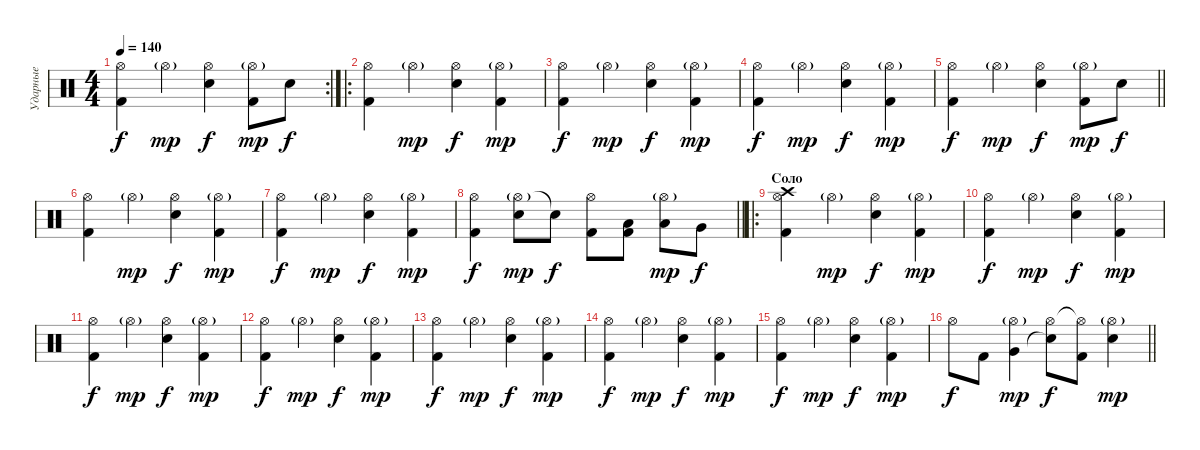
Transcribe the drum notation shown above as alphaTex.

\track ("Ударные" "Ударные") {instrument percussion}
\staff {score}
\articulation defaults
\rc 2
\ts (4 4)
\tempo 140
\clef neutral
\ks c
("Hi-Hat (open)" "Kick (hit) 2").4{dy f} "Hi-Hat (open)"{g}.4{dy mp} ("Hi-Hat (open)" "Electric Snare (hit)").4{dy f} ("Hi-Hat (open)"{g} "Kick (hit) 2").8{dy mp} "Electric Snare (hit)".8{dy f} |
\ro
("Hi-Hat (open)" "Kick (hit) 2").4 "Hi-Hat (open)"{g}.4{dy mp} ("Hi-Hat (open)" "Electric Snare (hit)").4{dy f} ("Hi-Hat (open)"{g} "Kick (hit) 2").4{dy mp} |
("Hi-Hat (open)" "Kick (hit) 2").4{dy f} "Hi-Hat (open)"{g}.4{dy mp} ("Hi-Hat (open)" "Electric Snare (hit)").4{dy f} ("Hi-Hat (open)"{g} "Kick (hit) 2").4{dy mp} |
("Hi-Hat (open)" "Kick (hit) 2").4{dy f} "Hi-Hat (open)"{g}.4{dy mp} ("Hi-Hat (open)" "Electric Snare (hit)").4{dy f} ("Hi-Hat (open)"{g} "Kick (hit) 2").4{dy mp} |
\barLineRight lightlight
("Hi-Hat (open)" "Kick (hit) 2").4{dy f} "Hi-Hat (open)"{g}.4{dy mp} ("Hi-Hat (open)" "Electric Snare (hit)").4{dy f} ("Hi-Hat (open)"{g} "Kick (hit) 2").8{dy mp} "Electric Snare (hit)".8{dy f} |
("Hi-Hat (open)" "Kick (hit) 2").4 "Hi-Hat (open)"{g}.4{dy mp} ("Hi-Hat (open)" "Electric Snare (hit)").4{dy f} ("Hi-Hat (open)"{g} "Kick (hit) 2").4{dy mp} |
("Hi-Hat (open)" "Kick (hit) 2").4{dy f} "Hi-Hat (open)"{g}.4{dy mp} ("Hi-Hat (open)" "Electric Snare (hit)").4{dy f} ("Hi-Hat (open)"{g} "Kick (hit) 2").4{dy mp} |
\barLineRight lightlight
("Hi-Hat (open)" "Kick (hit) 2").4{dy f} ("Hi-Hat (open)"{g} "Electric Snare (hit)").8{dy mp} "Snare (hit)"{t}.8{dy f} ("Hi-Hat (open)" "Kick (hit) 2").8 ("Low Floor Tom (hit)" "Kick (hit) 2").8 ("Hi-Hat (open)"{g} "Low Tom (hit)").8{dy mp} "Very Low Tom (hit)".8{dy f} |
\ro
\section ("" "Соло")
("Hi-Hat (open)" "Crash high (hit)" "Kick (hit) 2").4 "Hi-Hat (open)"{g}.4{dy mp} ("Hi-Hat (open)" "Electric Snare (hit)").4{dy f} ("Hi-Hat (open)"{g} "Kick (hit) 2").4{dy mp} |
("Hi-Hat (open)" "Kick (hit) 2").4{dy f} "Hi-Hat (open)"{g}.4{dy mp} ("Hi-Hat (open)" "Electric Snare (hit)").4{dy f} ("Hi-Hat (open)"{g} "Kick (hit) 2").4{dy mp} |
("Hi-Hat (open)" "Kick (hit) 2").4{dy f} "Hi-Hat (open)"{g}.4{dy mp} ("Hi-Hat (open)" "Electric Snare (hit)").4{dy f} ("Hi-Hat (open)"{g} "Kick (hit) 2").4{dy mp} |
("Hi-Hat (open)" "Kick (hit) 2").4{dy f} "Hi-Hat (open)"{g}.4{dy mp} ("Hi-Hat (open)" "Electric Snare (hit)").4{dy f} ("Hi-Hat (open)"{g} "Kick (hit) 2").4{dy mp} |
("Hi-Hat (open)" "Kick (hit) 2").4{dy f} "Hi-Hat (open)"{g}.4{dy mp} ("Hi-Hat (open)" "Electric Snare (hit)").4{dy f} ("Hi-Hat (open)"{g} "Kick (hit) 2").4{dy mp} |
("Hi-Hat (open)" "Kick (hit) 2").4{dy f} "Hi-Hat (open)"{g}.4{dy mp} ("Hi-Hat (open)" "Electric Snare (hit)").4{dy f} ("Hi-Hat (open)"{g} "Kick (hit) 2").4{dy mp} |
("Hi-Hat (open)" "Kick (hit) 2").4{dy f} "Hi-Hat (open)"{g}.4{dy mp} ("Hi-Hat (open)" "Electric Snare (hit)").4{dy f} ("Hi-Hat (open)"{g} "Kick (hit) 2").4{dy mp} |
\barLineRight lightlight "Hi-Hat (open)".8{dy f} "Kick (hit) 2".8
("Hi-Hat (open)"{g} "Very Low Tom (hit)").4{dy mp} ("Hi-Hat (open)" "Snare (hit)"{t}).8{dy f} ("Hi-Hat (open)"{t} "Kick (hit) 2").8 ("Hi-Hat (open)"{g} "Electric Snare (hit)").4{dy mp}
